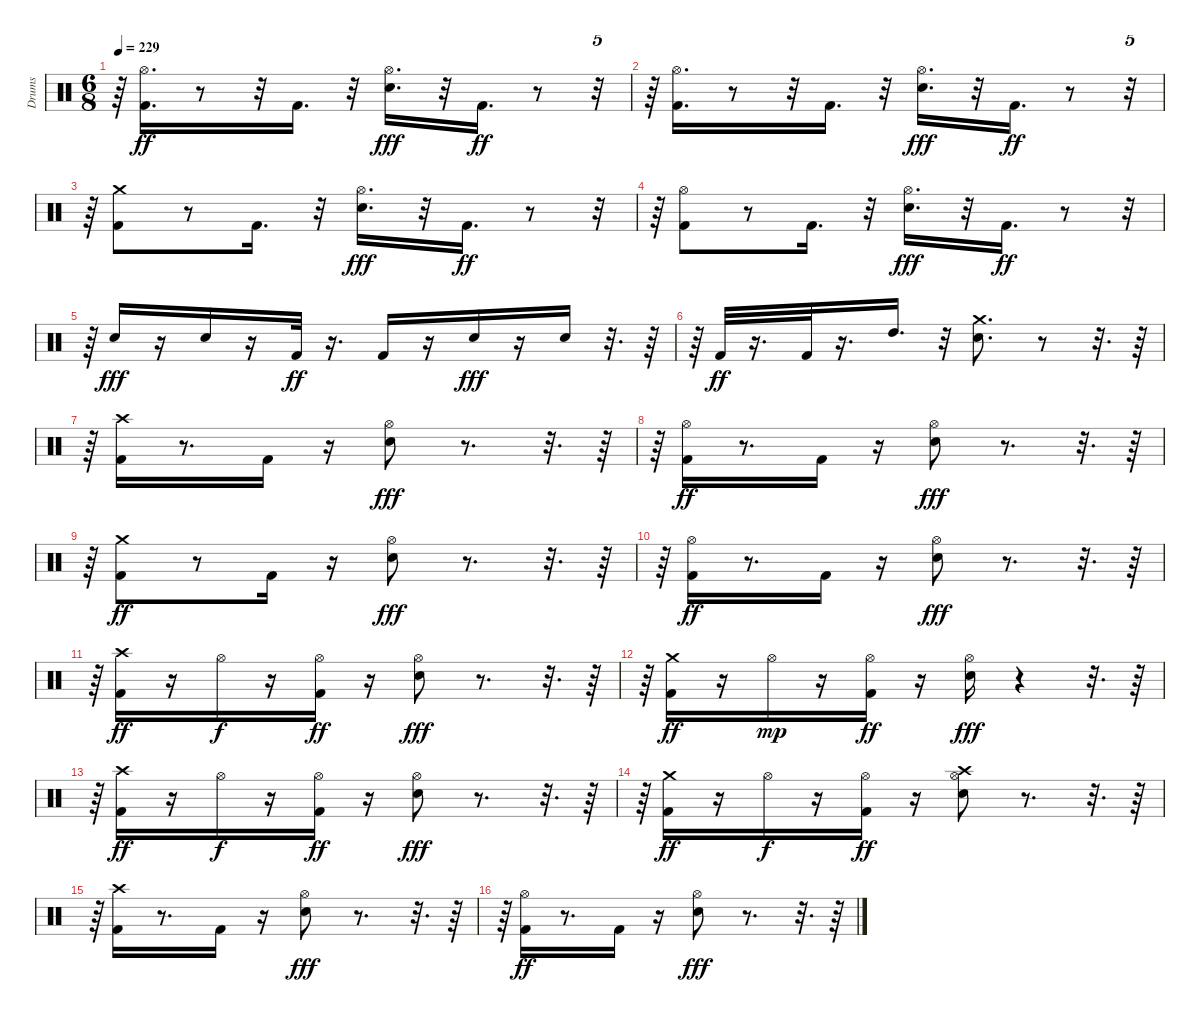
\track ("Drums" "Drums") {instrument percussion}
\staff {score}
\articulation defaults
\ts (6 8)
\tempo 229
\clef neutral
\ks c
r.64{dy ff} ("Kick (hit) 2" "Hi-Hat (open)").16{d} r.8 r.32 "Kick (hit) 2".16{d} r.32 ("Snare (hit) 2" "Hi-Hat (open)").16{d dy fff} r.32 "Kick (hit) 2".16{d dy ff} r.8 r.32{tu (5 4)} |
r.64 ("Kick (hit) 2" "Hi-Hat (open)").16{d} r.8 r.32 "Kick (hit) 2".16{d} r.32 ("Snare (hit) 2" "Hi-Hat (open)").16{d dy fff} r.32 "Kick (hit) 2".16{d dy ff} r.8 r.32{tu (5 4)} |
r.64 ("Kick (hit) 2" "Crash medium (hit)").8 r.8 "Kick (hit) 2".16{d} r.32 ("Snare (hit) 2" "Hi-Hat (open)").16{d dy fff} r.32 "Kick (hit) 2".16{d dy ff} r.8 r.32{tu (5 4)} |
r.64 ("Kick (hit) 2" "Hi-Hat (open)").8 r.8 "Kick (hit) 2".16{d} r.32 ("Snare (hit) 2" "Hi-Hat (open)").16{d dy fff} r.32 "Kick (hit) 2".16{d dy ff} r.8 r.32{tu (5 4)} |
r.64 "Snare (hit) 2".16{dy fff} r.16 "Snare (hit) 2".16 r.16 "Kick (hit) 2".32{dy ff} r.16{d} "Kick (hit) 2".16 r.16 "Snare (hit) 2".16{dy fff} r.16 "Snare (hit) 2".16 r.32{d} r.64 |
r.64 "Kick (hit) 2".32{dy ff} r.16{d} "Kick (hit) 2".32 r.16{d} "High Tom (hit)".16{d} r.32 ("Snare (hit) 2" "Crash medium (hit)").8{d} r.8 r.32{d} r.64 |
r.64 ("Kick (hit) 2" "Crash high (hit)").16 r.8{d} "Kick (hit) 2".16 r.16 ("Snare (hit) 2" "Hi-Hat (open)").8{dy fff} r.8{d} r.32{d} r.64 |
r.64 ("Kick (hit) 2" "Hi-Hat (open)").16{dy ff} r.8{d} "Kick (hit) 2".16 r.16 ("Snare (hit) 2" "Hi-Hat (open)").8{dy fff} r.8{d} r.32{d} r.64 |
r.64 ("Kick (hit) 2" "Crash medium (hit)").8{dy ff} r.8 "Kick (hit) 2".16 r.16 ("Snare (hit) 2" "Hi-Hat (open)").8{dy fff} r.8{d} r.32{d} r.64 |
r.64 ("Kick (hit) 2" "Hi-Hat (open)").16{dy ff} r.8{d} "Kick (hit) 2".16 r.16 ("Snare (hit) 2" "Hi-Hat (open)").8{dy fff} r.8{d} r.32{d} r.64 |
r.64 ("Kick (hit) 2" "Crash high (hit)").16{dy ff} r.16 "Hi-Hat (open)".16{dy f} r.16 ("Kick (hit) 2" "Hi-Hat (open)").16{dy ff} r.16 ("Snare (hit) 2" "Hi-Hat (open)").8{dy fff} r.8{d} r.32{d} r.64 |
r.64 ("Kick (hit) 2" "Crash medium (hit)").16{dy ff} r.16 "Hi-Hat (open)".16{dy mp} r.16 ("Kick (hit) 2" "Hi-Hat (open)").16{dy ff} r.16 ("Snare (hit) 2" "Hi-Hat (open)").16{dy fff} r.4 r.32{d} r.64 |
r.64 ("Kick (hit) 2" "Crash high (hit)").16{dy ff} r.16 "Hi-Hat (open)".16{dy f} r.16 ("Kick (hit) 2" "Hi-Hat (open)").16{dy ff} r.16 ("Snare (hit) 2" "Hi-Hat (open)").8{dy fff} r.8{d} r.32{d} r.64 |
r.64 ("Kick (hit) 2" "Crash medium (hit)").16{dy ff} r.16 "Hi-Hat (open)".16{dy f} r.16 ("Kick (hit) 2" "Hi-Hat (open)").16{dy ff} r.16 ("Snare (hit) 2" "Hi-Hat (open)" "Crash high (hit)").8 r.8{d} r.32{d} r.64 |
r.64 ("Kick (hit) 2" "Crash high (hit)").16 r.8{d} "Kick (hit) 2".16 r.16 ("Snare (hit) 2" "Hi-Hat (open)").8{dy fff} r.8{d} r.32{d} r.64 |
r.64 ("Kick (hit) 2" "Hi-Hat (open)").16{dy ff} r.8{d} "Kick (hit) 2".16 r.16 ("Snare (hit) 2" "Hi-Hat (open)").8{dy fff} r.8{d} r.32{d} r.64
